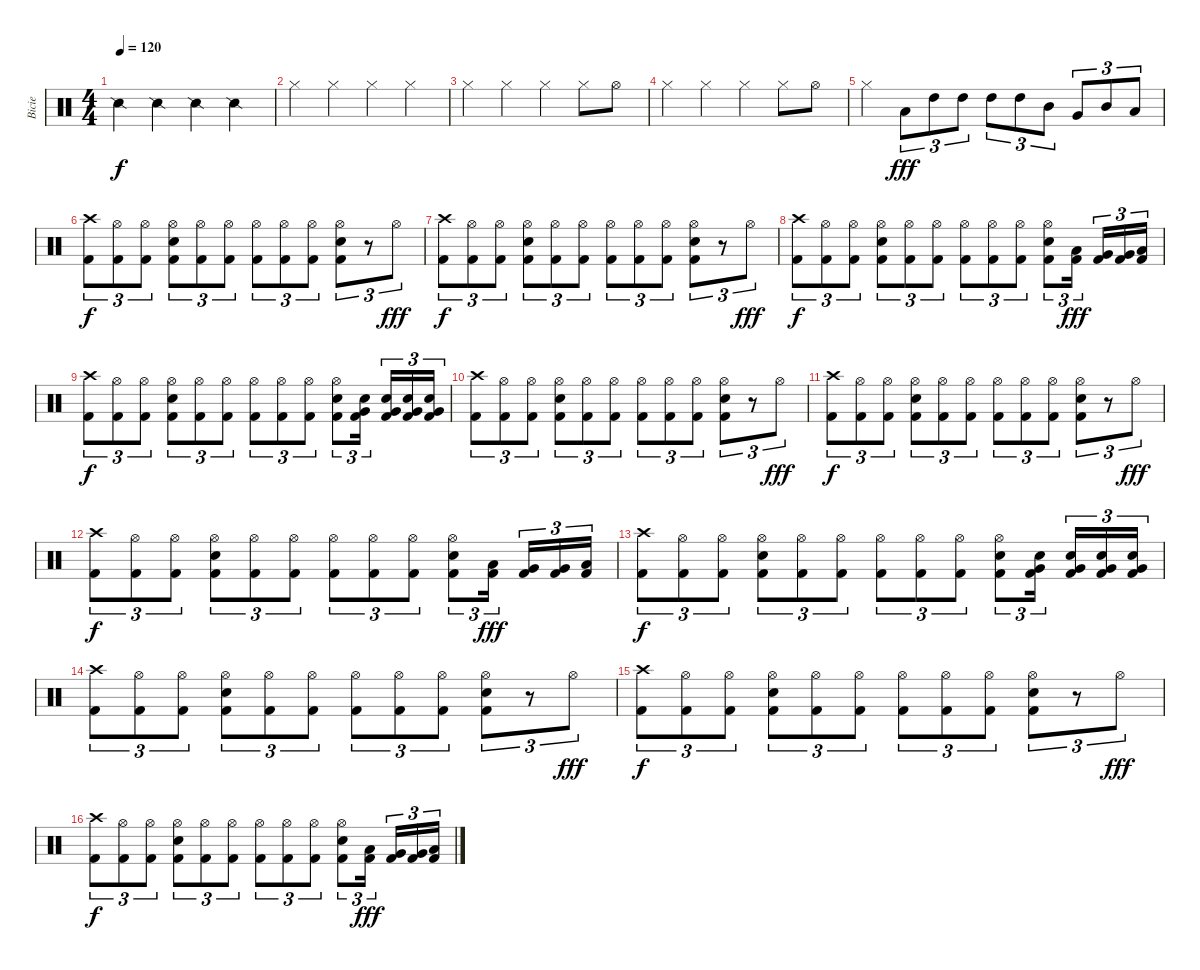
\track ("Bicie" "Bicie") {instrument percussion}
\staff {score}
\articulation defaults
\ts (4 4)
\tempo 120
\clef neutral
\ks c "Snare (side stick) 2".4{dy f} "Snare (side stick) 2".4 "Snare (side stick) 2".4 "Snare (side stick) 2".4
|
"Hi-Hat (closed)".4 "Hi-Hat (closed)".4 "Hi-Hat (closed)".4 "Hi-Hat (closed)".4 |
"Hi-Hat (closed)".4 "Hi-Hat (closed)".4 "Hi-Hat (closed)".4 "Hi-Hat (closed)".8 "Hi-Hat (open)".8 |
"Hi-Hat (closed)".4 "Hi-Hat (closed)".4 "Hi-Hat (closed)".4 "Hi-Hat (closed)".8 "Hi-Hat (open)".8 |
"Hi-Hat (closed)".4 "Low Tom (hit)".8{tu (3 2) dy fff} "High Tom (hit)".8{tu (3 2)} "High Tom (hit)".8{tu (3 2)} "High Tom (hit)".8{tu (3 2)} "High Tom (hit)".8{tu (3 2)} "Mid Tom (hit)".8{tu (3 2)} "Very Low Tom (hit)".8{tu (3 2)} "Mid Tom (hit)".8{tu (3 2)} "Low Tom (hit)".8{tu (3 2)} |
("Crash high (hit)" "Kick (hit) 2").8{tu (3 2) dy f} ("Hi-Hat (open)" "Kick (hit) 2").8{tu (3 2)} ("Hi-Hat (open)" "Kick (hit) 2").8{tu (3 2)} ("Hi-Hat (open)" "Electric Snare (hit)" "Kick (hit) 2").8{tu (3 2)} ("Hi-Hat (open)" "Kick (hit) 2").8{tu (3 2)} ("Hi-Hat (open)" "Kick (hit) 2").8{tu (3 2)} ("Hi-Hat (open)" "Kick (hit) 2").8{tu (3 2)} ("Hi-Hat (open)" "Kick (hit) 2").8{tu (3 2)} ("Hi-Hat (open)" "Kick (hit) 2").8{tu (3 2)} ("Hi-Hat (open)" "Electric Snare (hit)" "Kick (hit) 2").8{tu (3 2)} r.8{tu (3 2)} "Hi-Hat (open)".8{tu (3 2) dy fff} |
("Crash high (hit)" "Kick (hit) 2").8{tu (3 2) dy f} ("Hi-Hat (open)" "Kick (hit) 2").8{tu (3 2)} ("Hi-Hat (open)" "Kick (hit) 2").8{tu (3 2)} ("Hi-Hat (open)" "Electric Snare (hit)" "Kick (hit) 2").8{tu (3 2)} ("Hi-Hat (open)" "Kick (hit) 2").8{tu (3 2)} ("Hi-Hat (open)" "Kick (hit) 2").8{tu (3 2)} ("Hi-Hat (open)" "Kick (hit) 2").8{tu (3 2)} ("Hi-Hat (open)" "Kick (hit) 2").8{tu (3 2)} ("Hi-Hat (open)" "Kick (hit) 2").8{tu (3 2)} ("Hi-Hat (open)" "Electric Snare (hit)" "Kick (hit) 2").8{tu (3 2)} r.8{tu (3 2)} "Hi-Hat (open)".8{tu (3 2) dy fff} |
("Crash high (hit)" "Kick (hit) 2").8{tu (3 2) dy f} ("Hi-Hat (open)" "Kick (hit) 2").8{tu (3 2)} ("Hi-Hat (open)" "Kick (hit) 2").8{tu (3 2)} ("Hi-Hat (open)" "Electric Snare (hit)" "Kick (hit) 2").8{tu (3 2)} ("Hi-Hat (open)" "Kick (hit) 2").8{tu (3 2)} ("Hi-Hat (open)" "Kick (hit) 2").8{tu (3 2)} ("Hi-Hat (open)" "Kick (hit) 2").8{tu (3 2)} ("Hi-Hat (open)" "Kick (hit) 2").8{tu (3 2)} ("Hi-Hat (open)" "Kick (hit) 2").8{tu (3 2)} ("Hi-Hat (open)" "Electric Snare (hit)" "Kick (hit) 2").8{tu (3 2)} ("Kick (hit) 2" "Low Tom (hit)").16{tu (3 2) dy fff} ("Kick (hit) 2" "Very Low Tom (hit)").16{tu (3 2)} ("Kick (hit) 2" "Very Low Tom (hit)").16{tu (3 2)} ("Kick (hit) 2" "Low Floor Tom (hit)").16{tu (3 2)} |
("Crash high (hit)" "Kick (hit) 2").8{tu (3 2) dy f} ("Hi-Hat (open)" "Kick (hit) 2").8{tu (3 2)} ("Hi-Hat (open)" "Kick (hit) 2").8{tu (3 2)} ("Hi-Hat (open)" "Electric Snare (hit)" "Kick (hit) 2").8{tu (3 2)} ("Hi-Hat (open)" "Kick (hit) 2").8{tu (3 2)} ("Hi-Hat (open)" "Kick (hit) 2").8{tu (3 2)} ("Hi-Hat (open)" "Kick (hit) 2").8{tu (3 2)} ("Hi-Hat (open)" "Kick (hit) 2").8{tu (3 2)} ("Hi-Hat (open)" "Kick (hit) 2").8{tu (3 2)} ("Hi-Hat (open)" "Electric Snare (hit)" "Kick (hit) 2").8{tu (3 2)} ("Very Low Tom (hit)" "Electric Snare (hit)" "Kick (hit) 2").16{tu (3 2)} ("Very Low Tom (hit)" "Electric Snare (hit)" "Kick (hit) 2").16{tu (3 2)} ("Very Low Tom (hit)" "Electric Snare (hit)" "Kick (hit) 2").16{tu (3 2)} ("Very Low Tom (hit)" "Electric Snare (hit)" "Kick (hit) 2").16{tu (3 2)} |
("Crash high (hit)" "Kick (hit) 2").8{tu (3 2)} ("Hi-Hat (open)" "Kick (hit) 2").8{tu (3 2)} ("Hi-Hat (open)" "Kick (hit) 2").8{tu (3 2)} ("Hi-Hat (open)" "Electric Snare (hit)" "Kick (hit) 2").8{tu (3 2)} ("Hi-Hat (open)" "Kick (hit) 2").8{tu (3 2)} ("Hi-Hat (open)" "Kick (hit) 2").8{tu (3 2)} ("Hi-Hat (open)" "Kick (hit) 2").8{tu (3 2)} ("Hi-Hat (open)" "Kick (hit) 2").8{tu (3 2)} ("Hi-Hat (open)" "Kick (hit) 2").8{tu (3 2)} ("Hi-Hat (open)" "Electric Snare (hit)" "Kick (hit) 2").8{tu (3 2)} r.8{tu (3 2)} "Hi-Hat (open)".8{tu (3 2) dy fff} |
("Crash high (hit)" "Kick (hit) 2").8{tu (3 2) dy f} ("Hi-Hat (open)" "Kick (hit) 2").8{tu (3 2)} ("Hi-Hat (open)" "Kick (hit) 2").8{tu (3 2)} ("Hi-Hat (open)" "Electric Snare (hit)" "Kick (hit) 2").8{tu (3 2)} ("Hi-Hat (open)" "Kick (hit) 2").8{tu (3 2)} ("Hi-Hat (open)" "Kick (hit) 2").8{tu (3 2)} ("Hi-Hat (open)" "Kick (hit) 2").8{tu (3 2)} ("Hi-Hat (open)" "Kick (hit) 2").8{tu (3 2)} ("Hi-Hat (open)" "Kick (hit) 2").8{tu (3 2)} ("Hi-Hat (open)" "Electric Snare (hit)" "Kick (hit) 2").8{tu (3 2)} r.8{tu (3 2)} "Hi-Hat (open)".8{tu (3 2) dy fff} |
("Crash high (hit)" "Kick (hit) 2").8{tu (3 2) dy f} ("Hi-Hat (open)" "Kick (hit) 2").8{tu (3 2)} ("Hi-Hat (open)" "Kick (hit) 2").8{tu (3 2)} ("Hi-Hat (open)" "Electric Snare (hit)" "Kick (hit) 2").8{tu (3 2)} ("Hi-Hat (open)" "Kick (hit) 2").8{tu (3 2)} ("Hi-Hat (open)" "Kick (hit) 2").8{tu (3 2)} ("Hi-Hat (open)" "Kick (hit) 2").8{tu (3 2)} ("Hi-Hat (open)" "Kick (hit) 2").8{tu (3 2)} ("Hi-Hat (open)" "Kick (hit) 2").8{tu (3 2)} ("Hi-Hat (open)" "Electric Snare (hit)" "Kick (hit) 2").8{tu (3 2)} ("Kick (hit) 2" "Low Tom (hit)").16{tu (3 2) dy fff} ("Kick (hit) 2" "Very Low Tom (hit)").16{tu (3 2)} ("Kick (hit) 2" "Very Low Tom (hit)").16{tu (3 2)} ("Kick (hit) 2" "Low Floor Tom (hit)").16{tu (3 2)} |
("Crash high (hit)" "Kick (hit) 2").8{tu (3 2) dy f} ("Hi-Hat (open)" "Kick (hit) 2").8{tu (3 2)} ("Hi-Hat (open)" "Kick (hit) 2").8{tu (3 2)} ("Hi-Hat (open)" "Electric Snare (hit)" "Kick (hit) 2").8{tu (3 2)} ("Hi-Hat (open)" "Kick (hit) 2").8{tu (3 2)} ("Hi-Hat (open)" "Kick (hit) 2").8{tu (3 2)} ("Hi-Hat (open)" "Kick (hit) 2").8{tu (3 2)} ("Hi-Hat (open)" "Kick (hit) 2").8{tu (3 2)} ("Hi-Hat (open)" "Kick (hit) 2").8{tu (3 2)} ("Hi-Hat (open)" "Electric Snare (hit)" "Kick (hit) 2").8{tu (3 2)} ("Very Low Tom (hit)" "Electric Snare (hit)" "Kick (hit) 2").16{tu (3 2)} ("Very Low Tom (hit)" "Electric Snare (hit)" "Kick (hit) 2").16{tu (3 2)} ("Very Low Tom (hit)" "Electric Snare (hit)" "Kick (hit) 2").16{tu (3 2)} ("Very Low Tom (hit)" "Electric Snare (hit)" "Kick (hit) 2").16{tu (3 2)} |
("Crash high (hit)" "Kick (hit) 2").8{tu (3 2)} ("Hi-Hat (open)" "Kick (hit) 2").8{tu (3 2)} ("Hi-Hat (open)" "Kick (hit) 2").8{tu (3 2)} ("Hi-Hat (open)" "Electric Snare (hit)" "Kick (hit) 2").8{tu (3 2)} ("Hi-Hat (open)" "Kick (hit) 2").8{tu (3 2)} ("Hi-Hat (open)" "Kick (hit) 2").8{tu (3 2)} ("Hi-Hat (open)" "Kick (hit) 2").8{tu (3 2)} ("Hi-Hat (open)" "Kick (hit) 2").8{tu (3 2)} ("Hi-Hat (open)" "Kick (hit) 2").8{tu (3 2)} ("Hi-Hat (open)" "Electric Snare (hit)" "Kick (hit) 2").8{tu (3 2)} r.8{tu (3 2)} "Hi-Hat (open)".8{tu (3 2) dy fff} |
("Crash high (hit)" "Kick (hit) 2").8{tu (3 2) dy f} ("Hi-Hat (open)" "Kick (hit) 2").8{tu (3 2)} ("Hi-Hat (open)" "Kick (hit) 2").8{tu (3 2)} ("Hi-Hat (open)" "Electric Snare (hit)" "Kick (hit) 2").8{tu (3 2)} ("Hi-Hat (open)" "Kick (hit) 2").8{tu (3 2)} ("Hi-Hat (open)" "Kick (hit) 2").8{tu (3 2)} ("Hi-Hat (open)" "Kick (hit) 2").8{tu (3 2)} ("Hi-Hat (open)" "Kick (hit) 2").8{tu (3 2)} ("Hi-Hat (open)" "Kick (hit) 2").8{tu (3 2)} ("Hi-Hat (open)" "Electric Snare (hit)" "Kick (hit) 2").8{tu (3 2)} r.8{tu (3 2)} "Hi-Hat (open)".8{tu (3 2) dy fff} |
("Crash high (hit)" "Kick (hit) 2").8{tu (3 2) dy f} ("Hi-Hat (open)" "Kick (hit) 2").8{tu (3 2)} ("Hi-Hat (open)" "Kick (hit) 2").8{tu (3 2)} ("Hi-Hat (open)" "Electric Snare (hit)" "Kick (hit) 2").8{tu (3 2)} ("Hi-Hat (open)" "Kick (hit) 2").8{tu (3 2)} ("Hi-Hat (open)" "Kick (hit) 2").8{tu (3 2)} ("Hi-Hat (open)" "Kick (hit) 2").8{tu (3 2)} ("Hi-Hat (open)" "Kick (hit) 2").8{tu (3 2)} ("Hi-Hat (open)" "Kick (hit) 2").8{tu (3 2)} ("Hi-Hat (open)" "Electric Snare (hit)" "Kick (hit) 2").8{tu (3 2)} ("Kick (hit) 2" "Low Tom (hit)").16{tu (3 2) dy fff} ("Kick (hit) 2" "Very Low Tom (hit)").16{tu (3 2)} ("Kick (hit) 2" "Very Low Tom (hit)").16{tu (3 2)} ("Kick (hit) 2" "Low Floor Tom (hit)").16{tu (3 2)}
